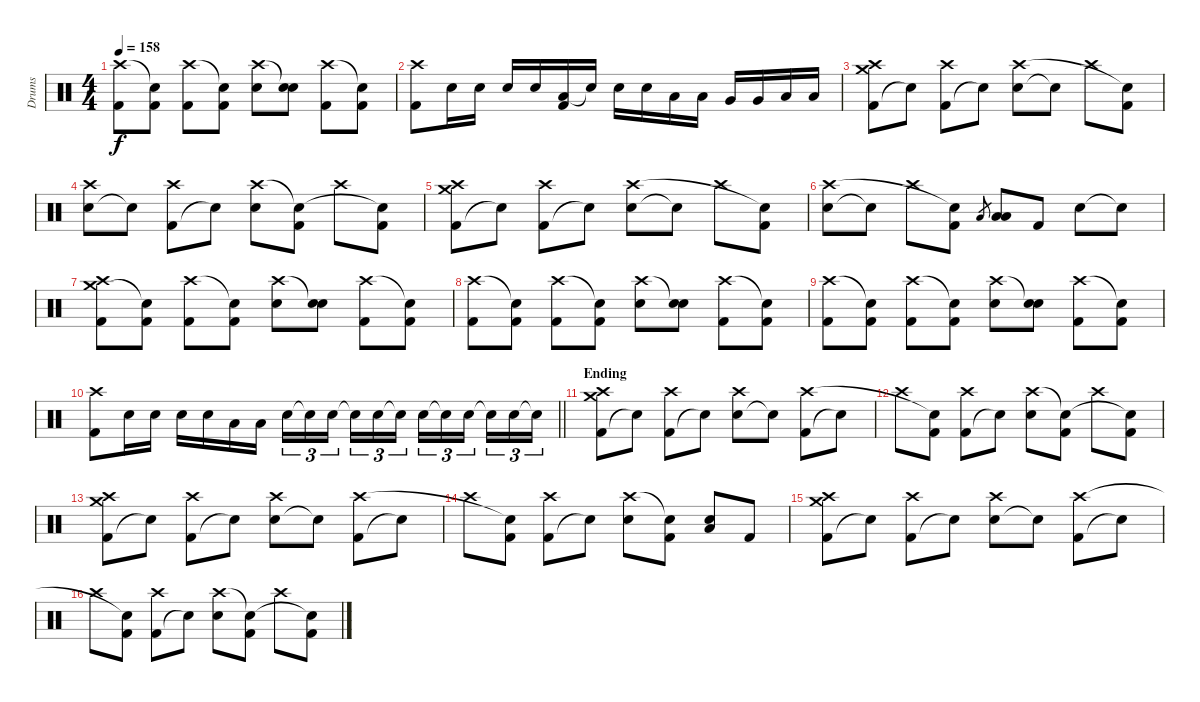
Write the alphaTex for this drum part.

\track ("Drums" "Drums") {instrument percussion}
\staff {score}
\articulation defaults
\ts (4 4)
\tempo 158
\clef neutral
\ks c
("Kick (hit) 2" "Crash high (hit)").8{dy f} ("Kick (hit) 2" "Snare (hit)"{t}).8 ("Kick (hit) 2" "Crash high (hit)").8 ("Kick (hit) 2" "Snare (hit)"{t}).8 ("Electric Snare (hit)" "Crash high (hit)").8 ("Electric Snare (hit)" "Snare (hit)"{t}).8 ("Kick (hit) 2" "Crash high (hit)").8 ("Kick (hit) 2" "Snare (hit)"{t}).8 |
("Kick (hit) 2" "Crash high (hit)").8 "Electric Snare (hit)".16 "Electric Snare (hit)".16 "Electric Snare (hit)".16 "Electric Snare (hit)".16 ("Low Tom (hit)" "Kick (hit) 2").16 "Snare (hit)"{t}.16 "Electric Snare (hit)".16 "Electric Snare (hit)".16 "Low Tom (hit)".16 "Low Tom (hit)".16 "Very Low Tom (hit)".16 "Very Low Tom (hit)".16 "Low Floor Tom (hit)".16 "Low Floor Tom (hit)".16 |
("Kick (hit) 2" "Crash medium (hit)" "Crash high (hit)").8 "Snare (hit)"{t}.8 ("Kick (hit) 2" "Crash high (hit)").8 "Snare (hit)"{t}.8 ("Electric Snare (hit)" "Crash high (hit)").8 "Snare (hit)"{t}.8 "Crash high (hit)".8 ("Kick (hit) 2" "Snare (hit)"{t}).8 |
("Electric Snare (hit)" "Crash high (hit)").8 "Snare (hit)"{t}.8 ("Kick (hit) 2" "Crash high (hit)").8 "Snare (hit)"{t}.8 ("Electric Snare (hit)" "Crash high (hit)").8 ("Kick (hit) 2" "Snare (hit)"{t}).8 "Crash high (hit)".8 ("Kick (hit) 2" "Snare (hit)"{t}).8 |
("Kick (hit) 2" "Crash medium (hit)" "Crash high (hit)").8 "Snare (hit)"{t}.8 ("Kick (hit) 2" "Crash high (hit)").8 "Snare (hit)"{t}.8 ("Electric Snare (hit)" "Crash high (hit)").8 "Snare (hit)"{t}.8 "Crash high (hit)".8 ("Kick (hit) 2" "Snare (hit)"{t}).8 |
("Electric Snare (hit)" "Crash high (hit)").8 "Snare (hit)"{t}.8 "Crash high (hit)".8 ("Kick (hit) 2" "Snare (hit)"{t}).8 "Low Tom (hit)".8{gr} ("Low Tom (hit)" "Low Floor Tom (hit)").8 "Kick (hit) 2".8 "Electric Snare (hit)".8 "Snare (hit)"{t}.8 |
("Kick (hit) 2" "Crash medium (hit)" "Crash high (hit)").8 ("Kick (hit) 2" "Snare (hit)"{t}).8 ("Kick (hit) 2" "Crash high (hit)").8 ("Kick (hit) 2" "Snare (hit)"{t}).8 ("Electric Snare (hit)" "Crash high (hit)").8 ("Electric Snare (hit)" "Snare (hit)"{t}).8 ("Kick (hit) 2" "Crash high (hit)").8 ("Kick (hit) 2" "Snare (hit)"{t}).8 |
("Kick (hit) 2" "Crash high (hit)").8 ("Kick (hit) 2" "Snare (hit)"{t}).8 ("Kick (hit) 2" "Crash high (hit)").8 ("Kick (hit) 2" "Snare (hit)"{t}).8 ("Electric Snare (hit)" "Crash high (hit)").8 ("Electric Snare (hit)" "Snare (hit)"{t}).8 ("Kick (hit) 2" "Crash high (hit)").8 ("Kick (hit) 2" "Snare (hit)"{t}).8 |
("Kick (hit) 2" "Crash high (hit)").8 ("Kick (hit) 2" "Snare (hit)"{t}).8 ("Kick (hit) 2" "Crash high (hit)").8 ("Kick (hit) 2" "Snare (hit)"{t}).8 ("Electric Snare (hit)" "Crash high (hit)").8 ("Electric Snare (hit)" "Snare (hit)"{t}).8 ("Kick (hit) 2" "Crash high (hit)").8 ("Kick (hit) 2" "Snare (hit)"{t}).8 |
\barLineRight lightlight
("Kick (hit) 2" "Crash high (hit)").8 "Electric Snare (hit)".16 "Electric Snare (hit)".16 "Electric Snare (hit)".16 "Electric Snare (hit)".16 "Low Tom (hit)".16 "Low Tom (hit)".16 "Electric Snare (hit)".16{tu (3 2)} "Snare (hit)"{t}.16{tu (3 2)} "Electric Snare (hit)".16{tu (3 2) beam splitsecondary} "Snare (hit)"{t}.16{tu (3 2)} "Electric Snare (hit)".16{tu (3 2)} "Snare (hit)"{t}.16{tu (3 2)} "Electric Snare (hit)".16{tu (3 2)} "Snare (hit)"{t}.16{tu (3 2)} "Electric Snare (hit)".16{tu (3 2) beam splitsecondary} "Snare (hit)"{t}.16{tu (3 2)} "Electric Snare (hit)".16{tu (3 2)} "Snare (hit)"{t}.16{tu (3 2)} |
\section ("" "Ending")
("Kick (hit) 2" "Crash medium (hit)" "Crash high (hit)").8 "Snare (hit)"{t}.8 ("Kick (hit) 2" "Crash high (hit)").8 "Snare (hit)"{t}.8 ("Electric Snare (hit)" "Crash high (hit)").8 "Snare (hit)"{t}.8 ("Kick (hit) 2" "Crash high (hit)").8 "Snare (hit)"{t}.8 |
"Crash high (hit)".8 ("Kick (hit) 2" "Snare (hit)"{t}).8 ("Kick (hit) 2" "Crash high (hit)").8 "Snare (hit)"{t}.8 ("Electric Snare (hit)" "Crash high (hit)").8 ("Kick (hit) 2" "Snare (hit)"{t}).8 "Crash high (hit)".8 ("Kick (hit) 2" "Snare (hit)"{t}).8 |
("Kick (hit) 2" "Crash medium (hit)" "Crash high (hit)").8 "Snare (hit)"{t}.8 ("Kick (hit) 2" "Crash high (hit)").8 "Snare (hit)"{t}.8 ("Electric Snare (hit)" "Crash high (hit)").8 "Snare (hit)"{t}.8 ("Kick (hit) 2" "Crash high (hit)").8 "Snare (hit)"{t}.8 |
"Crash high (hit)".8 ("Kick (hit) 2" "Snare (hit)"{t}).8 ("Kick (hit) 2" "Crash high (hit)").8 "Snare (hit)"{t}.8 ("Electric Snare (hit)" "Crash high (hit)").8 ("Kick (hit) 2" "Snare (hit)"{t}).8 ("Electric Snare (hit)" "Low Floor Tom (hit)").8 "Kick (hit) 2".8 |
("Kick (hit) 2" "Crash medium (hit)" "Crash high (hit)").8 "Snare (hit)"{t}.8 ("Kick (hit) 2" "Crash high (hit)").8 "Snare (hit)"{t}.8 ("Electric Snare (hit)" "Crash high (hit)").8 "Snare (hit)"{t}.8 ("Kick (hit) 2" "Crash high (hit)").8 "Snare (hit)"{t}.8 |
"Crash high (hit)".8 ("Kick (hit) 2" "Snare (hit)"{t}).8 ("Kick (hit) 2" "Crash high (hit)").8 "Snare (hit)"{t}.8 ("Electric Snare (hit)" "Crash high (hit)").8 ("Kick (hit) 2" "Snare (hit)"{t}).8 "Crash high (hit)".8 ("Kick (hit) 2" "Snare (hit)"{t}).8
